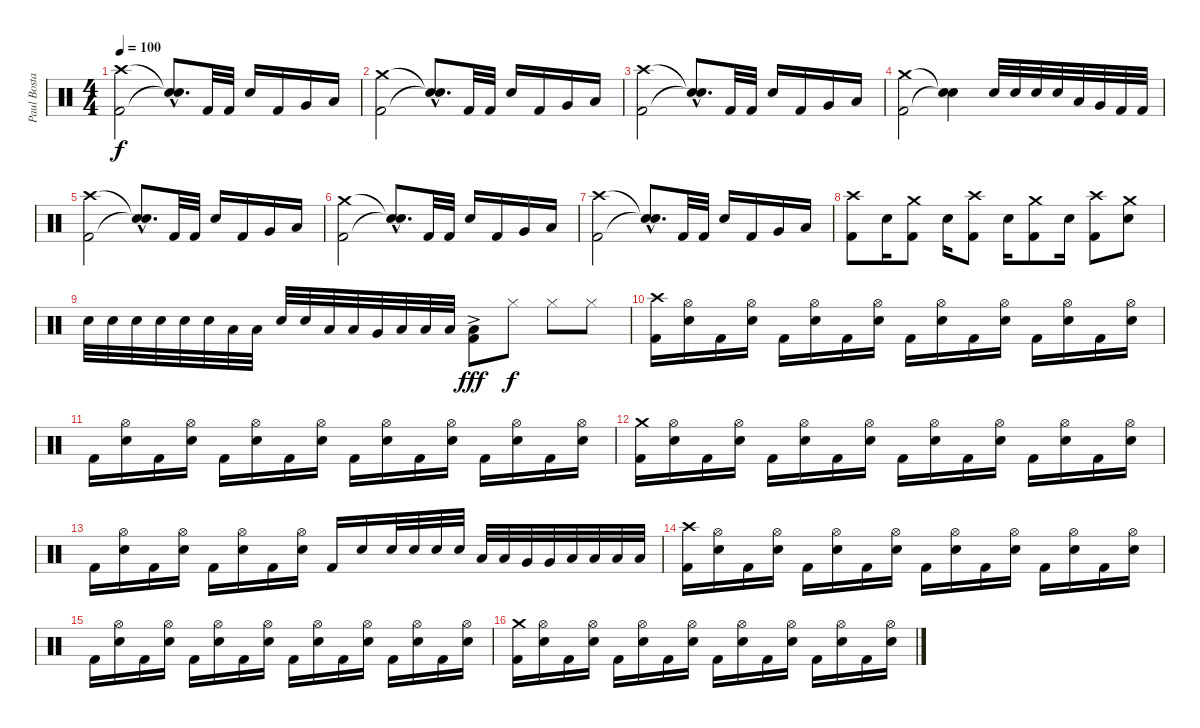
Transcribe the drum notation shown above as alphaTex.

\track ("Paul Bostaph" "Paul Bosta") {instrument percussion}
\staff {score}
\articulation defaults
\ts (4 4)
\tempo 100
\clef neutral
\ks c
("Crash high (hit)" "Kick (hit) 2").2{dy f} ("Snare (hit)"{hac t} "Snare (hit)"{hac t}).8{d} "Kick (hit) 2".32 "Kick (hit) 2".32 "Snare (hit) 2".16 "Kick (hit) 2".16 "Very Low Tom (hit)".16 "Low Floor Tom (hit)".16 |
("Crash medium (hit)" "Kick (hit) 2").2 ("Snare (hit)"{hac t} "Snare (hit)"{hac t}).8{d} "Kick (hit) 2".32 "Kick (hit) 2".32 "Snare (hit) 2".16 "Kick (hit) 2".16 "Very Low Tom (hit)".16 "Low Floor Tom (hit)".16 |
("Crash high (hit)" "Kick (hit) 2").2 ("Snare (hit)"{hac t} "Snare (hit)"{hac t}).8{d} "Kick (hit) 2".32 "Kick (hit) 2".32 "Snare (hit) 2".16 "Kick (hit) 2".16 "Very Low Tom (hit)".16 "Low Floor Tom (hit)".16 |
("Crash medium (hit)" "Kick (hit) 2").2 ("Snare (hit)"{t} "Snare (hit)"{t}).4 "Snare (hit) 2".32 "Snare (hit) 2".32 "Snare (hit) 2".32 "Snare (hit) 2".32 "Low Tom (hit)".32 "Very Low Tom (hit)".32 "Kick (hit) 2".32 "Kick (hit) 2".32 |
("Crash high (hit)" "Kick (hit) 2").2 ("Snare (hit)"{hac t} "Snare (hit)"{hac t}).8{d} "Kick (hit) 2".32 "Kick (hit) 2".32 "Snare (hit) 2".16 "Kick (hit) 2".16 "Very Low Tom (hit)".16 "Low Floor Tom (hit)".16 |
("Crash medium (hit)" "Kick (hit) 2").2 ("Snare (hit)"{hac t} "Snare (hit)"{hac t}).8{d} "Kick (hit) 2".32 "Kick (hit) 2".32 "Snare (hit) 2".16 "Kick (hit) 2".16 "Very Low Tom (hit)".16 "Low Floor Tom (hit)".16 |
("Crash high (hit)" "Kick (hit) 2").2 ("Snare (hit)"{hac t} "Snare (hit)"{hac t}).8{d} "Kick (hit) 2".32 "Kick (hit) 2".32 "Snare (hit) 2".16 "Kick (hit) 2".16 "Very Low Tom (hit)".16 "Low Floor Tom (hit)".16 |
("Crash high (hit)" "Kick (hit) 2").8 "Snare (hit) 2".16 ("Crash medium (hit)" "Kick (hit) 2").8 "Snare (hit) 2".16 ("Crash high (hit)" "Kick (hit) 2").8 "Snare (hit) 2".16 ("Crash medium (hit)" "Kick (hit) 2").8 "Snare (hit) 2".16 ("Crash high (hit)" "Kick (hit) 2").8 ("Crash medium (hit)" "Snare (hit) 2").8 |
"Snare (hit) 2".32 "Snare (hit) 2".32 "Snare (hit) 2".32 "Snare (hit) 2".32 "Snare (hit) 2".32 "Snare (hit) 2".32 "Low Tom (hit)".32 "Low Tom (hit)".32 "Snare (hit) 2".32 "Snare (hit) 2".32 "Low Tom (hit)".32 "Low Tom (hit)".32 "Very Low Tom (hit)".32 "Low Tom (hit)".32 "Low Floor Tom (hit)".32 "Low Floor Tom (hit)".32 ("Low Floor Tom (hit)"{ac} "Kick (hit) 2").8{dy fff} "Hi-Hat (closed)".8{dy f} "Hi-Hat (closed)".8 "Hi-Hat (closed)".8 |
("Crash high (hit)" "Kick (hit) 2").16 ("Hi-Hat (open)" "Snare (hit) 2").16 "Kick (hit) 2".16 ("Hi-Hat (open)" "Snare (hit) 2").16 "Kick (hit) 2".16 ("Hi-Hat (open)" "Snare (hit) 2").16 "Kick (hit) 2".16 ("Hi-Hat (open)" "Snare (hit) 2").16 "Kick (hit) 2".16 ("Hi-Hat (open)" "Snare (hit) 2").16 "Kick (hit) 2".16 ("Hi-Hat (open)" "Snare (hit) 2").16 "Kick (hit) 2".16 ("Hi-Hat (open)" "Snare (hit) 2").16 "Kick (hit) 2".16 ("Hi-Hat (open)" "Snare (hit) 2").16 |
"Kick (hit) 2".16 ("Hi-Hat (open)" "Snare (hit) 2").16 "Kick (hit) 2".16 ("Hi-Hat (open)" "Snare (hit) 2").16 "Kick (hit) 2".16 ("Hi-Hat (open)" "Snare (hit) 2").16 "Kick (hit) 2".16 ("Hi-Hat (open)" "Snare (hit) 2").16 "Kick (hit) 2".16 ("Hi-Hat (open)" "Snare (hit) 2").16 "Kick (hit) 2".16 ("Hi-Hat (open)" "Snare (hit) 2").16 "Kick (hit) 2".16 ("Hi-Hat (open)" "Snare (hit) 2").16 "Kick (hit) 2".16 ("Hi-Hat (open)" "Snare (hit) 2").16 |
("Crash medium (hit)" "Kick (hit) 2").16 ("Hi-Hat (open)" "Snare (hit) 2").16 "Kick (hit) 2".16 ("Hi-Hat (open)" "Snare (hit) 2").16 "Kick (hit) 2".16 ("Hi-Hat (open)" "Snare (hit) 2").16 "Kick (hit) 2".16 ("Hi-Hat (open)" "Snare (hit) 2").16 "Kick (hit) 2".16 ("Hi-Hat (open)" "Snare (hit) 2").16 "Kick (hit) 2".16 ("Hi-Hat (open)" "Snare (hit) 2").16 "Kick (hit) 2".16 ("Hi-Hat (open)" "Snare (hit) 2").16 "Kick (hit) 2".16 ("Hi-Hat (open)" "Snare (hit) 2").16 |
"Kick (hit) 2".16 ("Hi-Hat (open)" "Snare (hit) 2").16 "Kick (hit) 2".16 ("Hi-Hat (open)" "Snare (hit) 2").16 "Kick (hit) 2".16 ("Hi-Hat (open)" "Snare (hit) 2").16 "Kick (hit) 2".16 ("Hi-Hat (open)" "Snare (hit) 2").16 "Kick (hit) 2".16 "Snare (hit) 2".16 "Snare (hit) 2".32 "Snare (hit) 2".32 "Snare (hit) 2".32 "Snare (hit) 2".32 "Low Tom (hit)".32 "Low Tom (hit)".32 "Very Low Tom (hit)".32 "Very Low Tom (hit)".32 "Low Floor Tom (hit)".32 "Low Floor Tom (hit)".32 "Low Floor Tom (hit)".32 "Low Floor Tom (hit)".32 |
("Crash high (hit)" "Kick (hit) 2").16 ("Hi-Hat (open)" "Snare (hit) 2").16 "Kick (hit) 2".16 ("Hi-Hat (open)" "Snare (hit) 2").16 "Kick (hit) 2".16 ("Hi-Hat (open)" "Snare (hit) 2").16 "Kick (hit) 2".16 ("Hi-Hat (open)" "Snare (hit) 2").16 "Kick (hit) 2".16 ("Hi-Hat (open)" "Snare (hit) 2").16 "Kick (hit) 2".16 ("Hi-Hat (open)" "Snare (hit) 2").16 "Kick (hit) 2".16 ("Hi-Hat (open)" "Snare (hit) 2").16 "Kick (hit) 2".16 ("Hi-Hat (open)" "Snare (hit) 2").16 |
"Kick (hit) 2".16 ("Hi-Hat (open)" "Snare (hit) 2").16 "Kick (hit) 2".16 ("Hi-Hat (open)" "Snare (hit) 2").16 "Kick (hit) 2".16 ("Hi-Hat (open)" "Snare (hit) 2").16 "Kick (hit) 2".16 ("Hi-Hat (open)" "Snare (hit) 2").16 "Kick (hit) 2".16 ("Hi-Hat (open)" "Snare (hit) 2").16 "Kick (hit) 2".16 ("Hi-Hat (open)" "Snare (hit) 2").16 "Kick (hit) 2".16 ("Hi-Hat (open)" "Snare (hit) 2").16 "Kick (hit) 2".16 ("Hi-Hat (open)" "Snare (hit) 2").16 |
("Crash medium (hit)" "Kick (hit) 2").16 ("Hi-Hat (open)" "Snare (hit) 2").16 "Kick (hit) 2".16 ("Hi-Hat (open)" "Snare (hit) 2").16 "Kick (hit) 2".16 ("Hi-Hat (open)" "Snare (hit) 2").16 "Kick (hit) 2".16 ("Hi-Hat (open)" "Snare (hit) 2").16 "Kick (hit) 2".16 ("Hi-Hat (open)" "Snare (hit) 2").16 "Kick (hit) 2".16 ("Hi-Hat (open)" "Snare (hit) 2").16 "Kick (hit) 2".16 ("Hi-Hat (open)" "Snare (hit) 2").16 "Kick (hit) 2".16 ("Hi-Hat (open)" "Snare (hit) 2").16
